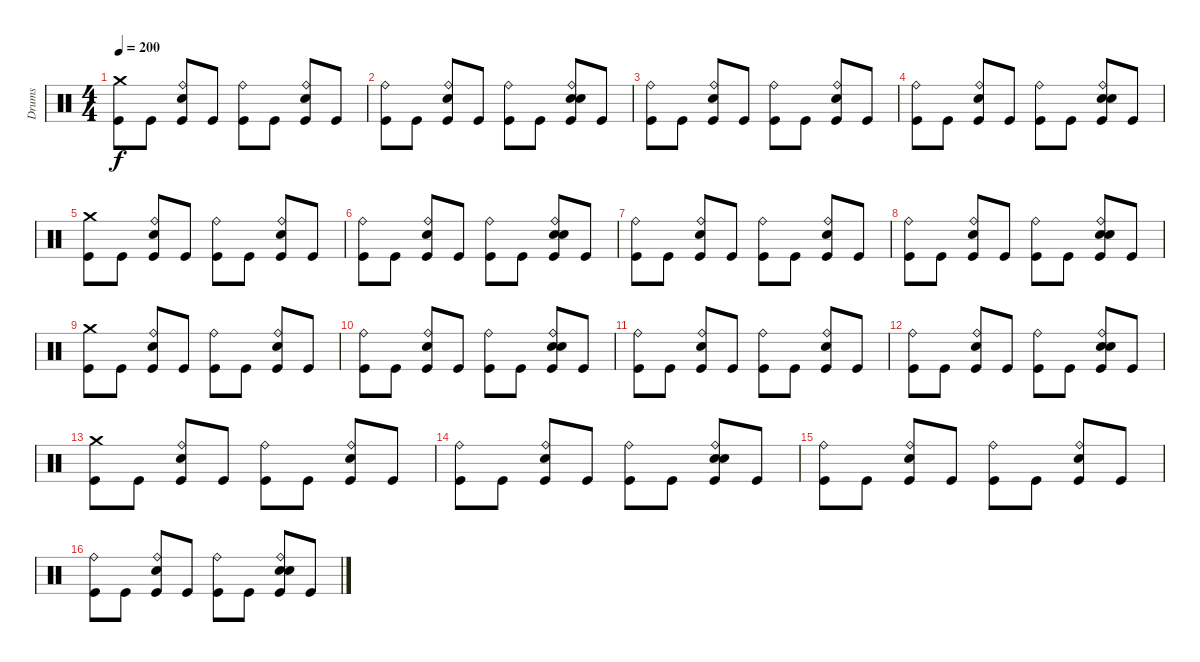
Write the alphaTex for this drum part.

\track ("Drums" "Drums") {instrument percussion}
\staff {score}
\articulation defaults
\ts (4 4)
\tempo 200
\clef neutral
\ks c
("Crash medium (hit)" "Kick (hit)").8{dy f} "Kick (hit)".8 ("Ride (bell)" "Snare (hit) 2" "Kick (hit)").8 "Kick (hit)".8 ("Ride (bell)" "Kick (hit)").8 "Kick (hit)".8 ("Ride (bell)" "Snare (hit) 2" "Kick (hit)").8 "Kick (hit)".8 |
("Ride (bell)" "Kick (hit)").8 "Kick (hit)".8 ("Ride (bell)" "Snare (hit) 2" "Kick (hit)").8 "Kick (hit)".8 ("Ride (bell)" "Kick (hit)").8 "Kick (hit)".8 ("Ride (bell)" "Hand Clap (hit)" "Snare (hit) 2" "Kick (hit)").8 "Kick (hit)".8 |
("Ride (bell)" "Kick (hit)").8 "Kick (hit)".8 ("Ride (bell)" "Snare (hit) 2" "Kick (hit)").8 "Kick (hit)".8 ("Ride (bell)" "Kick (hit)").8 "Kick (hit)".8 ("Ride (bell)" "Snare (hit) 2" "Kick (hit)").8 "Kick (hit)".8 |
("Ride (bell)" "Kick (hit)").8 "Kick (hit)".8 ("Ride (bell)" "Snare (hit) 2" "Kick (hit)").8 "Kick (hit)".8 ("Ride (bell)" "Kick (hit)").8 "Kick (hit)".8 ("Ride (bell)" "Hand Clap (hit)" "Snare (hit) 2" "Kick (hit)").8 "Kick (hit)".8 |
("Crash medium (hit)" "Kick (hit)").8 "Kick (hit)".8 ("Ride (bell)" "Snare (hit) 2" "Kick (hit)").8 "Kick (hit)".8 ("Ride (bell)" "Kick (hit)").8 "Kick (hit)".8 ("Ride (bell)" "Snare (hit) 2" "Kick (hit)").8 "Kick (hit)".8 |
("Ride (bell)" "Kick (hit)").8 "Kick (hit)".8 ("Ride (bell)" "Snare (hit) 2" "Kick (hit)").8 "Kick (hit)".8 ("Ride (bell)" "Kick (hit)").8 "Kick (hit)".8 ("Ride (bell)" "Hand Clap (hit)" "Snare (hit) 2" "Kick (hit)").8 "Kick (hit)".8 |
("Ride (bell)" "Kick (hit)").8 "Kick (hit)".8 ("Ride (bell)" "Snare (hit) 2" "Kick (hit)").8 "Kick (hit)".8 ("Ride (bell)" "Kick (hit)").8 "Kick (hit)".8 ("Ride (bell)" "Snare (hit) 2" "Kick (hit)").8 "Kick (hit)".8 |
("Ride (bell)" "Kick (hit)").8 "Kick (hit)".8 ("Ride (bell)" "Snare (hit) 2" "Kick (hit)").8 "Kick (hit)".8 ("Ride (bell)" "Kick (hit)").8 "Kick (hit)".8 ("Ride (bell)" "Hand Clap (hit)" "Snare (hit) 2" "Kick (hit)").8 "Kick (hit)".8 |
("Crash medium (hit)" "Kick (hit)").8 "Kick (hit)".8 ("Ride (bell)" "Snare (hit) 2" "Kick (hit)").8 "Kick (hit)".8 ("Ride (bell)" "Kick (hit)").8 "Kick (hit)".8 ("Ride (bell)" "Snare (hit) 2" "Kick (hit)").8 "Kick (hit)".8 |
("Ride (bell)" "Kick (hit)").8 "Kick (hit)".8 ("Ride (bell)" "Snare (hit) 2" "Kick (hit)").8 "Kick (hit)".8 ("Ride (bell)" "Kick (hit)").8 "Kick (hit)".8 ("Ride (bell)" "Hand Clap (hit)" "Snare (hit) 2" "Kick (hit)").8 "Kick (hit)".8 |
("Ride (bell)" "Kick (hit)").8 "Kick (hit)".8 ("Ride (bell)" "Snare (hit) 2" "Kick (hit)").8 "Kick (hit)".8 ("Ride (bell)" "Kick (hit)").8 "Kick (hit)".8 ("Ride (bell)" "Snare (hit) 2" "Kick (hit)").8 "Kick (hit)".8 |
("Ride (bell)" "Kick (hit)").8 "Kick (hit)".8 ("Ride (bell)" "Snare (hit) 2" "Kick (hit)").8 "Kick (hit)".8 ("Ride (bell)" "Kick (hit)").8 "Kick (hit)".8 ("Ride (bell)" "Hand Clap (hit)" "Snare (hit) 2" "Kick (hit)").8 "Kick (hit)".8 |
("Crash medium (hit)" "Kick (hit)").8 "Kick (hit)".8 ("Ride (bell)" "Snare (hit) 2" "Kick (hit)").8 "Kick (hit)".8 ("Ride (bell)" "Kick (hit)").8 "Kick (hit)".8 ("Ride (bell)" "Snare (hit) 2" "Kick (hit)").8 "Kick (hit)".8 |
("Ride (bell)" "Kick (hit)").8 "Kick (hit)".8 ("Ride (bell)" "Snare (hit) 2" "Kick (hit)").8 "Kick (hit)".8 ("Ride (bell)" "Kick (hit)").8 "Kick (hit)".8 ("Ride (bell)" "Hand Clap (hit)" "Snare (hit) 2" "Kick (hit)").8 "Kick (hit)".8 |
("Ride (bell)" "Kick (hit)").8 "Kick (hit)".8 ("Ride (bell)" "Snare (hit) 2" "Kick (hit)").8 "Kick (hit)".8 ("Ride (bell)" "Kick (hit)").8 "Kick (hit)".8 ("Ride (bell)" "Snare (hit) 2" "Kick (hit)").8 "Kick (hit)".8 |
("Ride (bell)" "Kick (hit)").8 "Kick (hit)".8 ("Ride (bell)" "Snare (hit) 2" "Kick (hit)").8 "Kick (hit)".8 ("Ride (bell)" "Kick (hit)").8 "Kick (hit)".8 ("Ride (bell)" "Hand Clap (hit)" "Snare (hit) 2" "Kick (hit)").8 "Kick (hit)".8
